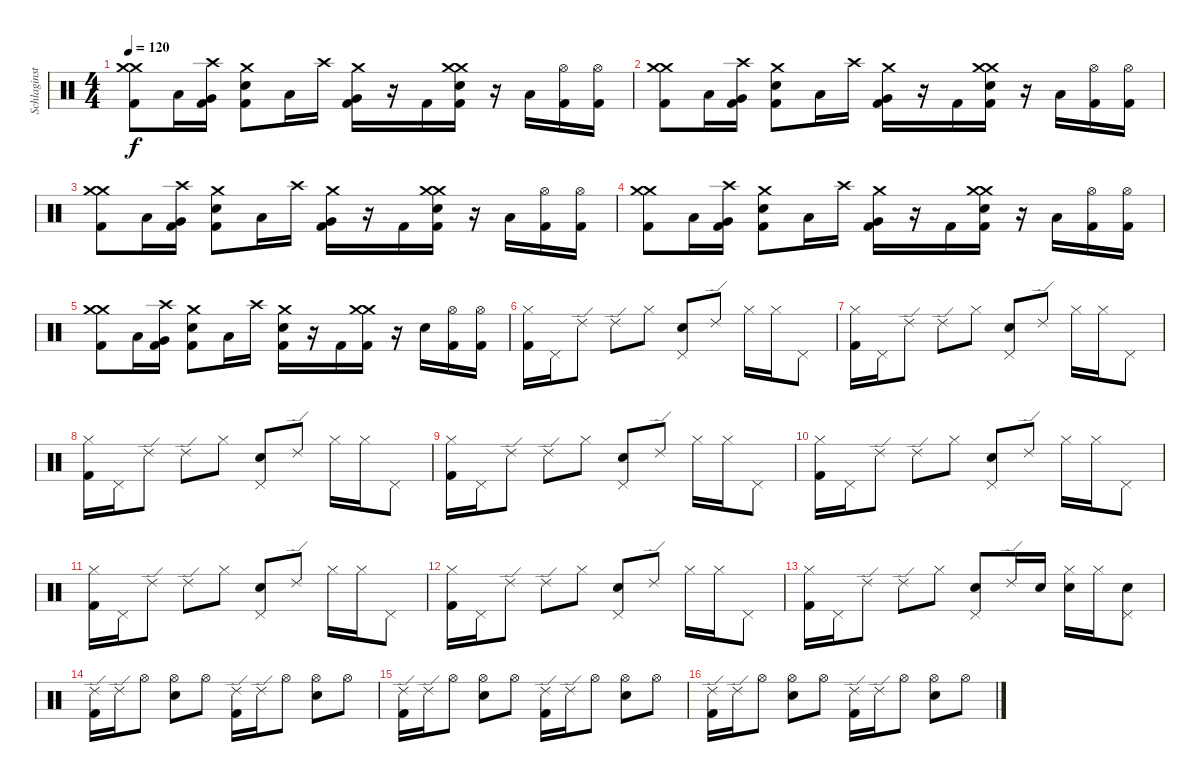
\track ("Schlaginstrumente - Auswahl" "Schlaginst") {instrument percussion}
\staff {score}
\articulation defaults
\ts (4 4)
\tempo 120
\clef neutral
\ks c
("Crash medium (hit)" "Kick (hit) 2" "Crash medium (hit)").8{dy f} "Low Tom (hit)".16 ("Very Low Tom (hit)" "Kick (hit) 2" "Crash high (hit)").16 ("Electric Snare (hit)" "Kick (hit) 2" "Crash medium (hit)").8 "Low Tom (hit)".16 "Crash high (hit)".16 ("Very Low Tom (hit)" "Kick (hit) 2" "Crash medium (hit)").16 r.16 "Kick (hit) 2".16 ("Crash medium (hit)" "Electric Snare (hit)" "Kick (hit) 2" "Crash medium (hit)").16 r.16 "Low Tom (hit)".16 ("Kick (hit) 2" "Hi-Hat (open)").16 ("Kick (hit) 2" "Hi-Hat (open)").16 |
("Crash medium (hit)" "Kick (hit) 2" "Crash medium (hit)").8 "Low Tom (hit)".16 ("Very Low Tom (hit)" "Kick (hit) 2" "Crash high (hit)").16 ("Electric Snare (hit)" "Kick (hit) 2" "Crash medium (hit)").8 "Low Tom (hit)".16 "Crash high (hit)".16 ("Very Low Tom (hit)" "Kick (hit) 2" "Crash medium (hit)").16 r.16 "Kick (hit) 2".16 ("Crash medium (hit)" "Electric Snare (hit)" "Kick (hit) 2" "Crash medium (hit)").16 r.16 "Low Tom (hit)".16 ("Kick (hit) 2" "Hi-Hat (open)").16 ("Kick (hit) 2" "Hi-Hat (open)").16 |
("Crash medium (hit)" "Kick (hit) 2" "Crash medium (hit)").8 "Low Tom (hit)".16 ("Very Low Tom (hit)" "Kick (hit) 2" "Crash high (hit)").16 ("Electric Snare (hit)" "Kick (hit) 2" "Crash medium (hit)").8 "Low Tom (hit)".16 "Crash high (hit)".16 ("Very Low Tom (hit)" "Kick (hit) 2" "Crash medium (hit)").16 r.16 "Kick (hit) 2".16 ("Crash medium (hit)" "Electric Snare (hit)" "Kick (hit) 2" "Crash medium (hit)").16 r.16 "Low Tom (hit)".16 ("Kick (hit) 2" "Hi-Hat (open)").16 ("Kick (hit) 2" "Hi-Hat (open)").16 |
("Crash medium (hit)" "Kick (hit) 2" "Crash medium (hit)").8 "Low Tom (hit)".16 ("Very Low Tom (hit)" "Kick (hit) 2" "Crash high (hit)").16 ("Electric Snare (hit)" "Kick (hit) 2" "Crash medium (hit)").8 "Low Tom (hit)".16 "Crash high (hit)".16 ("Very Low Tom (hit)" "Kick (hit) 2" "Crash medium (hit)").16 r.16 "Kick (hit) 2".16 ("Crash medium (hit)" "Electric Snare (hit)" "Kick (hit) 2" "Crash medium (hit)").16 r.16 "Low Tom (hit)".16 ("Kick (hit) 2" "Hi-Hat (open)").16 ("Kick (hit) 2" "Hi-Hat (open)").16 |
("Crash medium (hit)" "Kick (hit) 2" "Crash medium (hit)").8 "Low Tom (hit)".16 ("Very Low Tom (hit)" "Kick (hit) 2" "Crash high (hit)").16 ("Electric Snare (hit)" "Kick (hit) 2" "Crash medium (hit)").8 "Low Tom (hit)".16 "Crash high (hit)".16 ("Electric Snare (hit)" "Kick (hit) 2" "Crash medium (hit)").16 r.16 "Kick (hit) 2".16 ("Crash medium (hit)" "Kick (hit) 2" "Crash medium (hit)").16 r.16 "Electric Snare (hit)".16 ("Kick (hit) 2" "Hi-Hat (open)").16 ("Kick (hit) 2" "Hi-Hat (open)").16 |
("Hi-Hat (closed)" "Kick (hit) 2").16 "Pedal Hi-Hat (hit)".16 "Ride (edge) 2".8 "Ride (edge) 2".8 "Hi-Hat (closed)".8 ("Pedal Hi-Hat (hit)" "Electric Snare (hit)").8 "Ride (edge) 2".8 "Hi-Hat (closed)".16 "Hi-Hat (closed)".16 "Pedal Hi-Hat (hit)".8 |
("Hi-Hat (closed)" "Kick (hit) 2").16 "Pedal Hi-Hat (hit)".16 "Ride (edge) 2".8 "Ride (edge) 2".8 "Hi-Hat (closed)".8 ("Pedal Hi-Hat (hit)" "Electric Snare (hit)").8 "Ride (edge) 2".8 "Hi-Hat (closed)".16 "Hi-Hat (closed)".16 "Pedal Hi-Hat (hit)".8 |
("Hi-Hat (closed)" "Kick (hit) 2").16 "Pedal Hi-Hat (hit)".16 "Ride (edge) 2".8 "Ride (edge) 2".8 "Hi-Hat (closed)".8 ("Pedal Hi-Hat (hit)" "Electric Snare (hit)").8 "Ride (edge) 2".8 "Hi-Hat (closed)".16 "Hi-Hat (closed)".16 "Pedal Hi-Hat (hit)".8 |
("Hi-Hat (closed)" "Kick (hit) 2").16 "Pedal Hi-Hat (hit)".16 "Ride (edge) 2".8 "Ride (edge) 2".8 "Hi-Hat (closed)".8 ("Pedal Hi-Hat (hit)" "Electric Snare (hit)").8 "Ride (edge) 2".8 "Hi-Hat (closed)".16 "Hi-Hat (closed)".16 "Pedal Hi-Hat (hit)".8 |
("Hi-Hat (closed)" "Kick (hit) 2").16 "Pedal Hi-Hat (hit)".16 "Ride (edge) 2".8 "Ride (edge) 2".8 "Hi-Hat (closed)".8 ("Pedal Hi-Hat (hit)" "Electric Snare (hit)").8 "Ride (edge) 2".8 "Hi-Hat (closed)".16 "Hi-Hat (closed)".16 "Pedal Hi-Hat (hit)".8 |
("Hi-Hat (closed)" "Kick (hit) 2").16 "Pedal Hi-Hat (hit)".16 "Ride (edge) 2".8 "Ride (edge) 2".8 "Hi-Hat (closed)".8 ("Pedal Hi-Hat (hit)" "Electric Snare (hit)").8 "Ride (edge) 2".8 "Hi-Hat (closed)".16 "Hi-Hat (closed)".16 "Pedal Hi-Hat (hit)".8 |
("Hi-Hat (closed)" "Kick (hit) 2").16 "Pedal Hi-Hat (hit)".16 "Ride (edge) 2".8 "Ride (edge) 2".8 "Hi-Hat (closed)".8 ("Pedal Hi-Hat (hit)" "Electric Snare (hit)").8 "Ride (edge) 2".8 "Hi-Hat (closed)".16 "Hi-Hat (closed)".16 "Pedal Hi-Hat (hit)".8 |
("Hi-Hat (closed)" "Kick (hit) 2").16 "Pedal Hi-Hat (hit)".16 "Ride (edge) 2".8 "Ride (edge) 2".8 "Hi-Hat (closed)".8 ("Pedal Hi-Hat (hit)" "Electric Snare (hit)").8 "Ride (edge) 2".16 "Electric Snare (hit)".16 ("Hi-Hat (closed)" "Electric Snare (hit)").16 "Hi-Hat (closed)".16 ("Pedal Hi-Hat (hit)" "Electric Snare (hit)").8 |
("Ride (edge) 2" "Kick (hit) 2").16 "Ride (edge) 2".16 "Hi-Hat (open)".8 ("Hi-Hat (open)" "Electric Snare (hit)").8 "Hi-Hat (open)".8 ("Ride (edge) 2" "Kick (hit) 2").16 "Ride (edge) 2".16 "Hi-Hat (open)".8 ("Hi-Hat (open)" "Electric Snare (hit)").8 "Hi-Hat (open)".8 |
("Ride (edge) 2" "Kick (hit) 2").16 "Ride (edge) 2".16 "Hi-Hat (open)".8 ("Hi-Hat (open)" "Electric Snare (hit)").8 "Hi-Hat (open)".8 ("Ride (edge) 2" "Kick (hit) 2").16 "Ride (edge) 2".16 "Hi-Hat (open)".8 ("Hi-Hat (open)" "Electric Snare (hit)").8 "Hi-Hat (open)".8 |
("Ride (edge) 2" "Kick (hit) 2").16 "Ride (edge) 2".16 "Hi-Hat (open)".8 ("Hi-Hat (open)" "Electric Snare (hit)").8 "Hi-Hat (open)".8 ("Ride (edge) 2" "Kick (hit) 2").16 "Ride (edge) 2".16 "Hi-Hat (open)".8 ("Hi-Hat (open)" "Electric Snare (hit)").8 "Hi-Hat (open)".8
